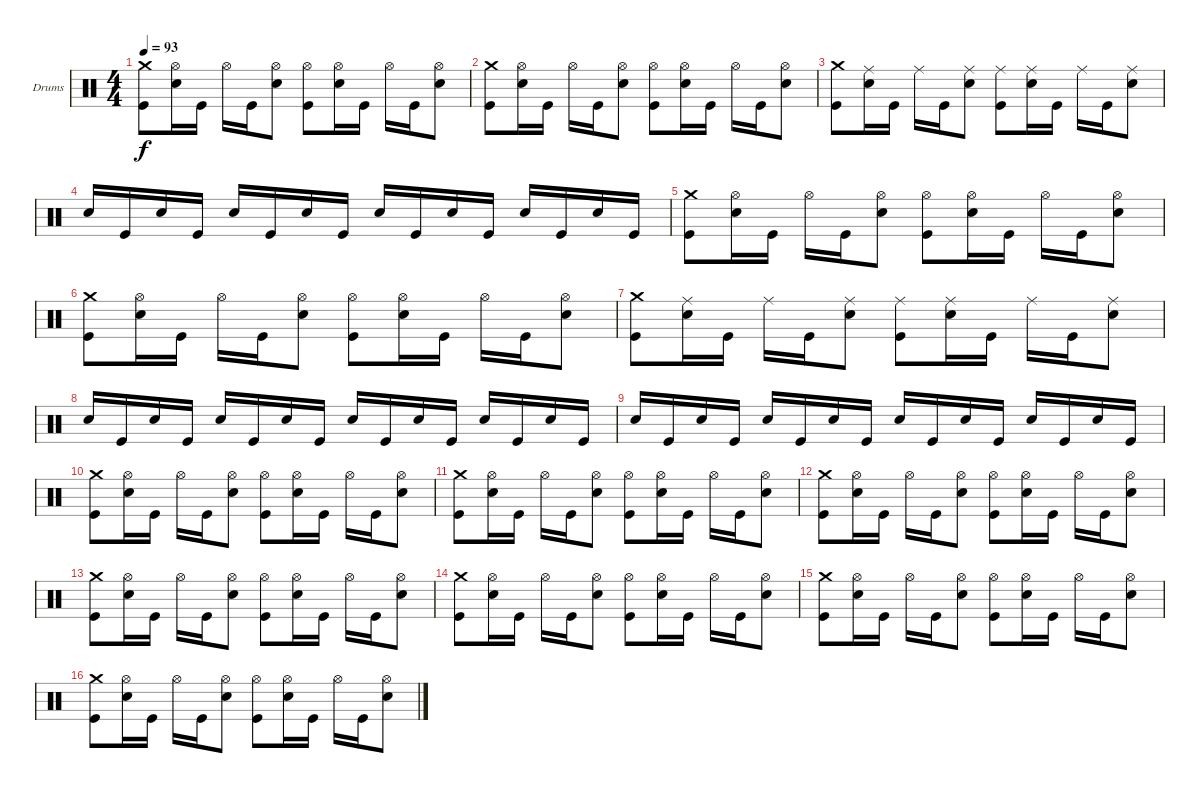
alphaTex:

\bracketExtendMode groupsimilarinstruments
\firstSystemTrackNameOrientation horizontal
\otherSystemsTrackNameOrientation horizontal
\track ("Drumkit" "Drums") {instrument percussion}
\staff {score}
\articulation defaults
\ts (4 4)
\tempo 93
\clef neutral
\ks c
("Kick (hit)" "Crash medium (hit)").8{dy f} ("Hi-Hat (open)" "Snare (hit) 2").16 "Kick (hit)".16 "Hi-Hat (open)".16 "Kick (hit)".16 ("Hi-Hat (open)" "Snare (hit) 2").8 ("Kick (hit)" "Hi-Hat (open)").8 ("Hi-Hat (open)" "Snare (hit) 2").16 "Kick (hit)".16 "Hi-Hat (open)".16 "Kick (hit)".16 ("Hi-Hat (open)" "Snare (hit) 2").8 |
("Kick (hit)" "Crash medium (hit)").8 ("Hi-Hat (open)" "Snare (hit) 2").16 "Kick (hit)".16 "Hi-Hat (open)".16 "Kick (hit)".16 ("Hi-Hat (open)" "Snare (hit) 2").8 ("Kick (hit)" "Hi-Hat (open)").8 ("Hi-Hat (open)" "Snare (hit) 2").16 "Kick (hit)".16 "Hi-Hat (open)".16 "Kick (hit)".16 ("Hi-Hat (open)" "Snare (hit) 2").8 |
("Kick (hit)" "Crash medium (hit)").8 ("Ride (middle)" "Snare (hit) 2").16 "Kick (hit)".16 "Ride (middle)".16 "Kick (hit)".16 ("Ride (middle)" "Snare (hit) 2").8 ("Kick (hit)" "Ride (middle)").8 ("Ride (middle)" "Snare (hit) 2").16 "Kick (hit)".16 "Ride (middle)".16 "Kick (hit)".16 ("Ride (middle)" "Snare (hit) 2").8 |
"Snare (hit) 2".16 "Kick (hit)".16 "Snare (hit) 2".16 "Kick (hit)".16 "Snare (hit) 2".16 "Kick (hit)".16 "Snare (hit) 2".16 "Kick (hit)".16 "Snare (hit) 2".16 "Kick (hit)".16 "Snare (hit) 2".16 "Kick (hit)".16 "Snare (hit) 2".16 "Kick (hit)".16 "Snare (hit) 2".16 "Kick (hit)".16 |
("Kick (hit)" "Crash medium (hit)").8 ("Hi-Hat (open)" "Snare (hit) 2").16 "Kick (hit)".16 "Hi-Hat (open)".16 "Kick (hit)".16 ("Hi-Hat (open)" "Snare (hit) 2").8 ("Kick (hit)" "Hi-Hat (open)").8 ("Hi-Hat (open)" "Snare (hit) 2").16 "Kick (hit)".16 "Hi-Hat (open)".16 "Kick (hit)".16 ("Hi-Hat (open)" "Snare (hit) 2").8 |
("Kick (hit)" "Crash medium (hit)").8 ("Hi-Hat (open)" "Snare (hit) 2").16 "Kick (hit)".16 "Hi-Hat (open)".16 "Kick (hit)".16 ("Hi-Hat (open)" "Snare (hit) 2").8 ("Kick (hit)" "Hi-Hat (open)").8 ("Hi-Hat (open)" "Snare (hit) 2").16 "Kick (hit)".16 "Hi-Hat (open)".16 "Kick (hit)".16 ("Hi-Hat (open)" "Snare (hit) 2").8 |
("Kick (hit)" "Crash medium (hit)").8 ("Ride (middle)" "Snare (hit) 2").16 "Kick (hit)".16 "Ride (middle)".16 "Kick (hit)".16 ("Ride (middle)" "Snare (hit) 2").8 ("Kick (hit)" "Ride (middle)").8 ("Ride (middle)" "Snare (hit) 2").16 "Kick (hit)".16 "Ride (middle)".16 "Kick (hit)".16 ("Ride (middle)" "Snare (hit) 2").8 |
"Snare (hit) 2".16 "Kick (hit)".16 "Snare (hit) 2".16 "Kick (hit)".16 "Snare (hit) 2".16 "Kick (hit)".16 "Snare (hit) 2".16 "Kick (hit)".16 "Snare (hit) 2".16 "Kick (hit)".16 "Snare (hit) 2".16 "Kick (hit)".16 "Snare (hit) 2".16 "Kick (hit)".16 "Snare (hit) 2".16 "Kick (hit)".16 |
"Snare (hit) 2".16 "Kick (hit)".16 "Snare (hit) 2".16 "Kick (hit)".16 "Snare (hit) 2".16 "Kick (hit)".16 "Snare (hit) 2".16 "Kick (hit)".16 "Snare (hit) 2".16 "Kick (hit)".16 "Snare (hit) 2".16 "Kick (hit)".16 "Snare (hit) 2".16 "Kick (hit)".16 "Snare (hit) 2".16 "Kick (hit)".16 |
("Kick (hit)" "Crash medium (hit)").8 ("Hi-Hat (open)" "Snare (hit) 2").16 "Kick (hit)".16 "Hi-Hat (open)".16 "Kick (hit)".16 ("Hi-Hat (open)" "Snare (hit) 2").8 ("Kick (hit)" "Hi-Hat (open)").8 ("Hi-Hat (open)" "Snare (hit) 2").16 "Kick (hit)".16 "Hi-Hat (open)".16 "Kick (hit)".16 ("Hi-Hat (open)" "Snare (hit) 2").8 |
("Kick (hit)" "Crash medium (hit)").8 ("Hi-Hat (open)" "Snare (hit) 2").16 "Kick (hit)".16 "Hi-Hat (open)".16 "Kick (hit)".16 ("Hi-Hat (open)" "Snare (hit) 2").8 ("Kick (hit)" "Hi-Hat (open)").8 ("Hi-Hat (open)" "Snare (hit) 2").16 "Kick (hit)".16 "Hi-Hat (open)".16 "Kick (hit)".16 ("Hi-Hat (open)" "Snare (hit) 2").8 |
("Kick (hit)" "Crash medium (hit)").8 ("Hi-Hat (open)" "Snare (hit) 2").16 "Kick (hit)".16 "Hi-Hat (open)".16 "Kick (hit)".16 ("Hi-Hat (open)" "Snare (hit) 2").8 ("Kick (hit)" "Hi-Hat (open)").8 ("Hi-Hat (open)" "Snare (hit) 2").16 "Kick (hit)".16 "Hi-Hat (open)".16 "Kick (hit)".16 ("Hi-Hat (open)" "Snare (hit) 2").8 |
("Kick (hit)" "Crash medium (hit)").8 ("Hi-Hat (open)" "Snare (hit) 2").16 "Kick (hit)".16 "Hi-Hat (open)".16 "Kick (hit)".16 ("Hi-Hat (open)" "Snare (hit) 2").8 ("Kick (hit)" "Hi-Hat (open)").8 ("Hi-Hat (open)" "Snare (hit) 2").16 "Kick (hit)".16 "Hi-Hat (open)".16 "Kick (hit)".16 ("Hi-Hat (open)" "Snare (hit) 2").8 |
("Kick (hit)" "Crash medium (hit)").8 ("Hi-Hat (open)" "Snare (hit) 2").16 "Kick (hit)".16 "Hi-Hat (open)".16 "Kick (hit)".16 ("Hi-Hat (open)" "Snare (hit) 2").8 ("Kick (hit)" "Hi-Hat (open)").8 ("Hi-Hat (open)" "Snare (hit) 2").16 "Kick (hit)".16 "Hi-Hat (open)".16 "Kick (hit)".16 ("Hi-Hat (open)" "Snare (hit) 2").8 |
("Kick (hit)" "Crash medium (hit)").8 ("Hi-Hat (open)" "Snare (hit) 2").16 "Kick (hit)".16 "Hi-Hat (open)".16 "Kick (hit)".16 ("Hi-Hat (open)" "Snare (hit) 2").8 ("Kick (hit)" "Hi-Hat (open)").8 ("Hi-Hat (open)" "Snare (hit) 2").16 "Kick (hit)".16 "Hi-Hat (open)".16 "Kick (hit)".16 ("Hi-Hat (open)" "Snare (hit) 2").8 |
("Kick (hit)" "Crash medium (hit)").8 ("Hi-Hat (open)" "Snare (hit) 2").16 "Kick (hit)".16 "Hi-Hat (open)".16 "Kick (hit)".16 ("Hi-Hat (open)" "Snare (hit) 2").8 ("Kick (hit)" "Hi-Hat (open)").8 ("Hi-Hat (open)" "Snare (hit) 2").16 "Kick (hit)".16 "Hi-Hat (open)".16 "Kick (hit)".16 ("Hi-Hat (open)" "Snare (hit) 2").8
